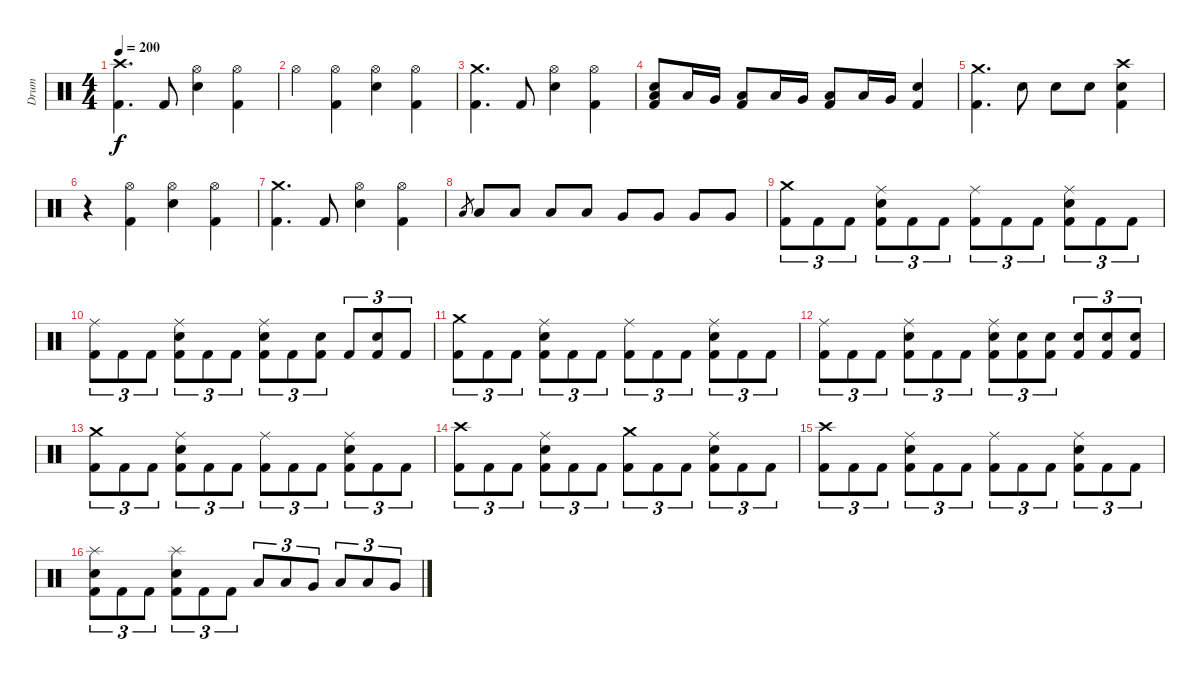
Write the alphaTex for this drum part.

\track ("Drum" "Drum") {instrument percussion}
\staff {score}
\articulation defaults
\ts (4 4)
\tempo 200
\clef neutral
\ks c
("Crash high (hit)" "Kick (hit) 2").4{d dy f} "Kick (hit) 2".8 ("Hi-Hat (open)" "Electric Snare (hit)").4 ("Hi-Hat (open)" "Kick (hit) 2").4 |
"Hi-Hat (open)".4 ("Hi-Hat (open)" "Kick (hit) 2").4 ("Hi-Hat (open)" "Electric Snare (hit)").4 ("Hi-Hat (open)" "Kick (hit) 2").4 |
("Crash medium (hit)" "Kick (hit) 2").4{d} "Kick (hit) 2".8 ("Hi-Hat (open)" "Electric Snare (hit)").4 ("Hi-Hat (open)" "Kick (hit) 2").4 |
("Electric Snare (hit)" "Low Tom (hit)" "Kick (hit) 2").8 "Low Tom (hit)".16 "Very Low Tom (hit)".16 ("Low Tom (hit)" "Kick (hit) 2").8 "Low Tom (hit)".16 "Very Low Tom (hit)".16 ("Low Tom (hit)" "Kick (hit) 2").8 "Low Tom (hit)".16 "Very Low Tom (hit)".16 ("Electric Snare (hit)" "Kick (hit) 2").4 |
("Crash medium (hit)" "Kick (hit) 2").4{d} "Electric Snare (hit)".8 "Electric Snare (hit)".8 "Electric Snare (hit)".8 ("Crash high (hit)" "Electric Snare (hit)" "Kick (hit) 2").4 |
r.4 ("Hi-Hat (open)" "Kick (hit) 2").4 ("Hi-Hat (open)" "Electric Snare (hit)").4 ("Hi-Hat (open)" "Kick (hit) 2").4 |
("Crash medium (hit)" "Kick (hit) 2").4{d} "Kick (hit) 2".8 ("Hi-Hat (open)" "Electric Snare (hit)").4 ("Hi-Hat (open)" "Kick (hit) 2").4 |
"Low Tom (hit)".8{gr} "Low Tom (hit)".8 "Low Tom (hit)".8 "Low Tom (hit)".8 "Low Tom (hit)".8 "Very Low Tom (hit)".8 "Very Low Tom (hit)".8 "Very Low Tom (hit)".8 "Very Low Tom (hit)".8 |
("Crash medium (hit)" "Kick (hit) 2").8{tu (3 2)} "Kick (hit) 2".8{tu (3 2)} "Kick (hit) 2".8{tu (3 2)} ("Ride (middle)" "Electric Snare (hit)" "Kick (hit) 2").8{tu (3 2)} "Kick (hit) 2".8{tu (3 2)} "Kick (hit) 2".8{tu (3 2)} ("Ride (middle)" "Kick (hit) 2").8{tu (3 2)} "Kick (hit) 2".8{tu (3 2)} "Kick (hit) 2".8{tu (3 2)} ("Ride (middle)" "Electric Snare (hit)" "Kick (hit) 2").8{tu (3 2)} "Kick (hit) 2".8{tu (3 2)} "Kick (hit) 2".8{tu (3 2)} |
("Ride (middle)" "Kick (hit) 2").8{tu (3 2)} "Kick (hit) 2".8{tu (3 2)} "Kick (hit) 2".8{tu (3 2)} ("Ride (middle)" "Electric Snare (hit)" "Kick (hit) 2").8{tu (3 2)} "Kick (hit) 2".8{tu (3 2)} "Kick (hit) 2".8{tu (3 2)} ("Ride (middle)" "Electric Snare (hit)" "Kick (hit) 2").8{tu (3 2)} "Kick (hit) 2".8{tu (3 2)} ("Electric Snare (hit)" "Kick (hit) 2").8{tu (3 2)} "Kick (hit) 2".8{tu (3 2)} ("Electric Snare (hit)" "Kick (hit) 2").8{tu (3 2)} "Kick (hit) 2".8{tu (3 2)} |
("Crash medium (hit)" "Kick (hit) 2").8{tu (3 2)} "Kick (hit) 2".8{tu (3 2)} "Kick (hit) 2".8{tu (3 2)} ("Ride (middle)" "Electric Snare (hit)" "Kick (hit) 2").8{tu (3 2)} "Kick (hit) 2".8{tu (3 2)} "Kick (hit) 2".8{tu (3 2)} ("Ride (middle)" "Kick (hit) 2").8{tu (3 2)} "Kick (hit) 2".8{tu (3 2)} "Kick (hit) 2".8{tu (3 2)} ("Ride (middle)" "Electric Snare (hit)" "Kick (hit) 2").8{tu (3 2)} "Kick (hit) 2".8{tu (3 2)} "Kick (hit) 2".8{tu (3 2)} |
("Ride (middle)" "Kick (hit) 2").8{tu (3 2)} "Kick (hit) 2".8{tu (3 2)} "Kick (hit) 2".8{tu (3 2)} ("Ride (middle)" "Electric Snare (hit)" "Kick (hit) 2").8{tu (3 2)} "Kick (hit) 2".8{tu (3 2)} "Kick (hit) 2".8{tu (3 2)} ("Ride (middle)" "Electric Snare (hit)" "Kick (hit) 2").8{tu (3 2)} ("Electric Snare (hit)" "Kick (hit) 2").8{tu (3 2)} ("Electric Snare (hit)" "Kick (hit) 2").8{tu (3 2)} ("Electric Snare (hit)" "Kick (hit) 2").8{tu (3 2)} ("Electric Snare (hit)" "Kick (hit) 2").8{tu (3 2)} ("Electric Snare (hit)" "Kick (hit) 2").8{tu (3 2)} |
("Crash medium (hit)" "Kick (hit) 2").8{tu (3 2)} "Kick (hit) 2".8{tu (3 2)} "Kick (hit) 2".8{tu (3 2)} ("Ride (middle)" "Electric Snare (hit)" "Kick (hit) 2").8{tu (3 2)} "Kick (hit) 2".8{tu (3 2)} "Kick (hit) 2".8{tu (3 2)} ("Ride (middle)" "Kick (hit) 2").8{tu (3 2)} "Kick (hit) 2".8{tu (3 2)} "Kick (hit) 2".8{tu (3 2)} ("Ride (middle)" "Electric Snare (hit)" "Kick (hit) 2").8{tu (3 2)} "Kick (hit) 2".8{tu (3 2)} "Kick (hit) 2".8{tu (3 2)} |
("Crash high (hit)" "Kick (hit) 2").8{tu (3 2)} "Kick (hit) 2".8{tu (3 2)} "Kick (hit) 2".8{tu (3 2)} ("Ride (middle)" "Electric Snare (hit)" "Kick (hit) 2").8{tu (3 2)} "Kick (hit) 2".8{tu (3 2)} "Kick (hit) 2".8{tu (3 2)} ("Crash medium (hit)" "Kick (hit) 2").8{tu (3 2)} "Kick (hit) 2".8{tu (3 2)} "Kick (hit) 2".8{tu (3 2)} ("Ride (middle)" "Electric Snare (hit)" "Kick (hit) 2").8{tu (3 2)} "Kick (hit) 2".8{tu (3 2)} "Kick (hit) 2".8{tu (3 2)} |
("Crash high (hit)" "Kick (hit) 2").8{tu (3 2)} "Kick (hit) 2".8{tu (3 2)} "Kick (hit) 2".8{tu (3 2)} ("Ride (middle)" "Electric Snare (hit)" "Kick (hit) 2").8{tu (3 2)} "Kick (hit) 2".8{tu (3 2)} "Kick (hit) 2".8{tu (3 2)} ("Ride (middle)" "Kick (hit) 2").8{tu (3 2)} "Kick (hit) 2".8{tu (3 2)} "Kick (hit) 2".8{tu (3 2)} ("Ride (middle)" "Electric Snare (hit)" "Kick (hit) 2").8{tu (3 2)} "Kick (hit) 2".8{tu (3 2)} "Kick (hit) 2".8{tu (3 2)} |
("Splash (hit)" "Electric Snare (hit)" "Kick (hit) 2").8{tu (3 2)} "Kick (hit) 2".8{tu (3 2)} "Kick (hit) 2".8{tu (3 2)} ("Splash (hit)" "Electric Snare (hit)" "Kick (hit) 2").8{tu (3 2)} "Kick (hit) 2".8{tu (3 2)} "Kick (hit) 2".8{tu (3 2)} "Low Tom (hit)".8{tu (3 2)} "Low Tom (hit)".8{tu (3 2)} "Very Low Tom (hit)".8{tu (3 2)} "Low Tom (hit)".8{tu (3 2)} "Low Tom (hit)".8{tu (3 2)} "Very Low Tom (hit)".8{tu (3 2)}
